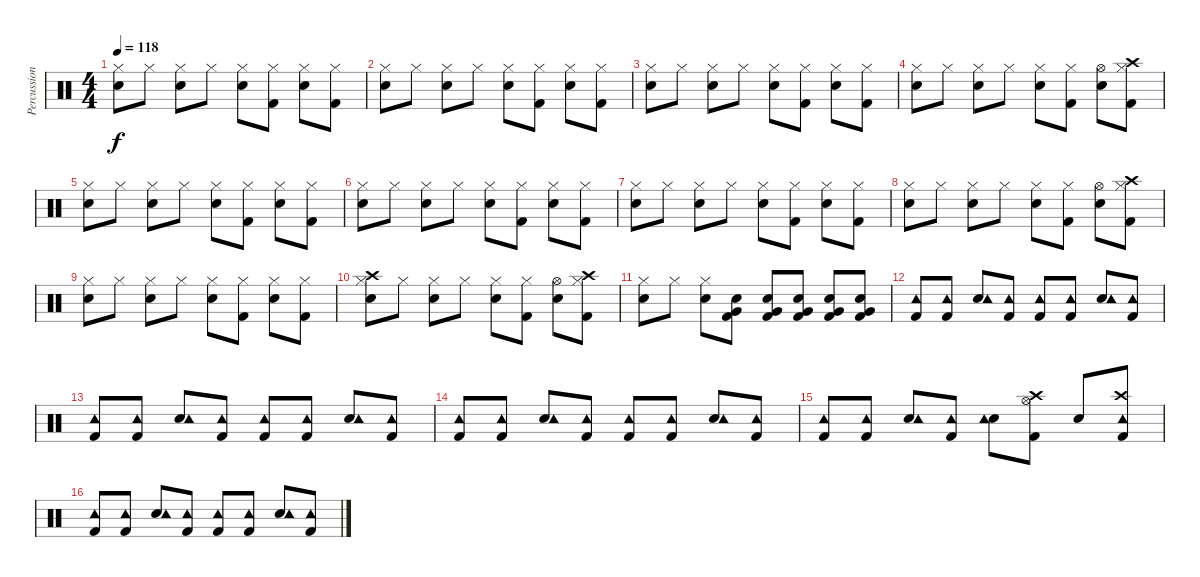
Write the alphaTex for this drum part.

\track ("Percussion" "Percussion") {instrument percussion}
\staff {score}
\articulation defaults
\ts (4 4)
\tempo 118
\clef neutral
\ks c
("Snare (hit) 2" "Hi-Hat (closed)").8{dy f} "Hi-Hat (closed)".8 ("Snare (hit) 2" "Hi-Hat (closed)").8 "Hi-Hat (closed)".8 ("Snare (hit) 2" "Hi-Hat (closed)").8 ("Kick (hit) 2" "Hi-Hat (closed)").8 ("Snare (hit) 2" "Hi-Hat (closed)").8 ("Kick (hit) 2" "Hi-Hat (closed)").8 |
("Snare (hit) 2" "Hi-Hat (closed)").8 "Hi-Hat (closed)".8 ("Snare (hit) 2" "Hi-Hat (closed)").8 "Hi-Hat (closed)".8 ("Snare (hit) 2" "Hi-Hat (closed)").8 ("Kick (hit) 2" "Hi-Hat (closed)").8 ("Snare (hit) 2" "Hi-Hat (closed)").8 ("Kick (hit) 2" "Hi-Hat (closed)").8 |
("Snare (hit) 2" "Hi-Hat (closed)").8 "Hi-Hat (closed)".8 ("Snare (hit) 2" "Hi-Hat (closed)").8 "Hi-Hat (closed)".8 ("Snare (hit) 2" "Hi-Hat (closed)").8 ("Kick (hit) 2" "Hi-Hat (closed)").8 ("Snare (hit) 2" "Hi-Hat (closed)").8 ("Kick (hit) 2" "Hi-Hat (closed)").8 |
("Snare (hit) 2" "Hi-Hat (closed)").8 "Hi-Hat (closed)".8 ("Snare (hit) 2" "Hi-Hat (closed)").8 "Hi-Hat (closed)".8 ("Snare (hit) 2" "Hi-Hat (closed)").8 ("Kick (hit) 2" "Hi-Hat (closed)").8 ("Snare (hit) 2" "Hi-Hat (open)").8 ("Crash high (hit)" "Kick (hit) 2" "Hi-Hat (closed)").8 |
("Snare (hit) 2" "Hi-Hat (closed)").8 "Hi-Hat (closed)".8 ("Snare (hit) 2" "Hi-Hat (closed)").8 "Hi-Hat (closed)".8 ("Snare (hit) 2" "Hi-Hat (closed)").8 ("Kick (hit) 2" "Hi-Hat (closed)").8 ("Snare (hit) 2" "Hi-Hat (closed)").8 ("Kick (hit) 2" "Hi-Hat (closed)").8 |
("Snare (hit) 2" "Hi-Hat (closed)").8 "Hi-Hat (closed)".8 ("Snare (hit) 2" "Hi-Hat (closed)").8 "Hi-Hat (closed)".8 ("Snare (hit) 2" "Hi-Hat (closed)").8 ("Kick (hit) 2" "Hi-Hat (closed)").8 ("Snare (hit) 2" "Hi-Hat (closed)").8 ("Kick (hit) 2" "Hi-Hat (closed)").8 |
("Snare (hit) 2" "Hi-Hat (closed)").8 "Hi-Hat (closed)".8 ("Snare (hit) 2" "Hi-Hat (closed)").8 "Hi-Hat (closed)".8 ("Snare (hit) 2" "Hi-Hat (closed)").8 ("Kick (hit) 2" "Hi-Hat (closed)").8 ("Snare (hit) 2" "Hi-Hat (closed)").8 ("Kick (hit) 2" "Hi-Hat (closed)").8 |
("Snare (hit) 2" "Hi-Hat (closed)").8 "Hi-Hat (closed)".8 ("Snare (hit) 2" "Hi-Hat (closed)").8 "Hi-Hat (closed)".8 ("Snare (hit) 2" "Hi-Hat (closed)").8 ("Kick (hit) 2" "Hi-Hat (closed)").8 ("Snare (hit) 2" "Hi-Hat (open)").8 ("Crash high (hit)" "Kick (hit) 2" "Hi-Hat (closed)").8 |
("Snare (hit) 2" "Hi-Hat (closed)").8 "Hi-Hat (closed)".8 ("Snare (hit) 2" "Hi-Hat (closed)").8 "Hi-Hat (closed)".8 ("Snare (hit) 2" "Hi-Hat (closed)").8 ("Kick (hit) 2" "Hi-Hat (closed)").8 ("Snare (hit) 2" "Hi-Hat (closed)").8 ("Kick (hit) 2" "Hi-Hat (closed)").8 |
("Crash high (hit)" "Snare (hit) 2" "Hi-Hat (closed)").8 "Hi-Hat (closed)".8 ("Snare (hit) 2" "Hi-Hat (closed)").8 "Hi-Hat (closed)".8 ("Snare (hit) 2" "Hi-Hat (closed)").8 ("Kick (hit) 2" "Hi-Hat (closed)").8 ("Snare (hit) 2" "Hi-Hat (open)").8 ("Crash high (hit)" "Kick (hit) 2" "Hi-Hat (closed)").8 |
("Snare (hit) 2" "Hi-Hat (closed)").8 "Hi-Hat (closed)".8 ("Snare (hit) 2" "Hi-Hat (closed)").8 ("Snare (hit) 2" "Very Low Tom (hit)" "Kick (hit) 2").8 ("Snare (hit) 2" "Very Low Tom (hit)" "Kick (hit) 2").8 ("Snare (hit) 2" "Very Low Tom (hit)" "Kick (hit) 2").8 ("Snare (hit) 2" "Very Low Tom (hit)" "Kick (hit) 2").8 ("Snare (hit) 2" "Very Low Tom (hit)" "Kick (hit) 2").8 |
("Kick (hit) 2" "Tambourine (hit)").8 ("Kick (hit) 2" "Tambourine (hit)").8 ("Snare (hit) 2" "Tambourine (hit)").8 ("Kick (hit) 2" "Tambourine (hit)").8 ("Kick (hit) 2" "Tambourine (hit)").8 ("Kick (hit) 2" "Tambourine (hit)").8 ("Snare (hit) 2" "Tambourine (hit)").8 ("Kick (hit) 2" "Tambourine (hit)").8 |
("Kick (hit) 2" "Tambourine (hit)").8 ("Kick (hit) 2" "Tambourine (hit)").8 ("Snare (hit) 2" "Tambourine (hit)").8 ("Kick (hit) 2" "Tambourine (hit)").8 ("Kick (hit) 2" "Tambourine (hit)").8 ("Kick (hit) 2" "Tambourine (hit)").8 ("Snare (hit) 2" "Tambourine (hit)").8 ("Kick (hit) 2" "Tambourine (hit)").8 |
("Kick (hit) 2" "Tambourine (hit)").8 ("Kick (hit) 2" "Tambourine (hit)").8 ("Snare (hit) 2" "Tambourine (hit)").8 ("Kick (hit) 2" "Tambourine (hit)").8 ("Kick (hit) 2" "Tambourine (hit)").8 ("Kick (hit) 2" "Tambourine (hit)").8 ("Snare (hit) 2" "Tambourine (hit)").8 ("Kick (hit) 2" "Tambourine (hit)").8 |
("Kick (hit) 2" "Tambourine (hit)").8 ("Kick (hit) 2" "Tambourine (hit)").8 ("Snare (hit) 2" "Tambourine (hit)").8 ("Kick (hit) 2" "Tambourine (hit)").8 ("Snare (hit) 2" "Tambourine (hit)").8 ("Crash high (hit)" "Kick (hit) 2" "Hi-Hat (open)").8 "Snare (hit) 2".8 ("Crash high (hit)" "Kick (hit) 2" "Tambourine (hit)").8 |
("Kick (hit) 2" "Tambourine (hit)").8 ("Kick (hit) 2" "Tambourine (hit)").8 ("Snare (hit) 2" "Tambourine (hit)").8 ("Kick (hit) 2" "Tambourine (hit)").8 ("Kick (hit) 2" "Tambourine (hit)").8 ("Kick (hit) 2" "Tambourine (hit)").8 ("Snare (hit) 2" "Tambourine (hit)").8 ("Kick (hit) 2" "Tambourine (hit)").8
